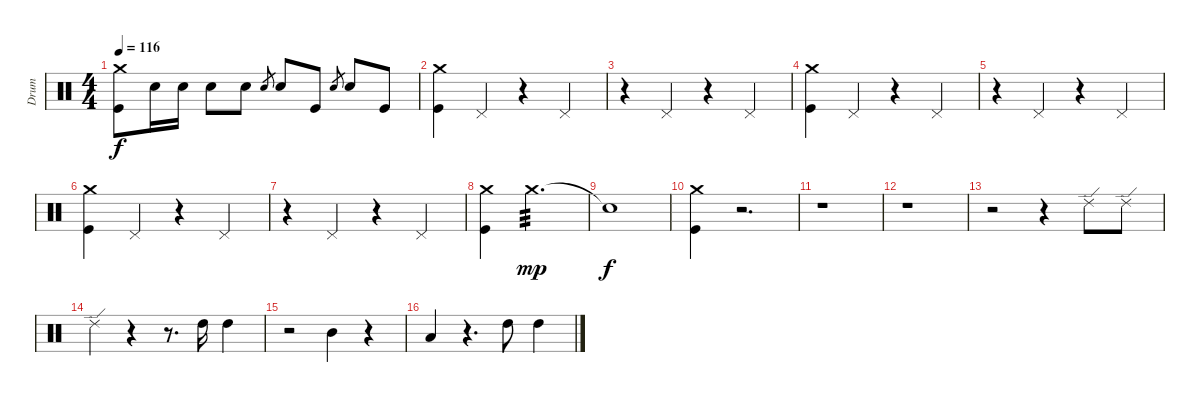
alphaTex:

\track ("Drum" "Drum") {instrument percussion}
\staff {score}
\articulation defaults
\ts (4 4)
\tempo 116
\clef neutral
\ks c
("Kick (hit)" "Crash medium (hit)").8{dy f} "Electric Snare (hit)".16 "Electric Snare (hit)".16 "Electric Snare (hit)".8 "Electric Snare (hit)".8 "Electric Snare (hit)".8{gr} "Electric Snare (hit)".8 "Kick (hit)".8 "Electric Snare (hit)".8{gr} "Electric Snare (hit)".8 "Kick (hit)".8 |
("Kick (hit)" "Crash medium (hit)").4 "Pedal Hi-Hat (hit)".4 r.4 "Pedal Hi-Hat (hit)".4 |
r.4 "Pedal Hi-Hat (hit)".4 r.4 "Pedal Hi-Hat (hit)".4 |
("Kick (hit)" "Crash medium (hit)").4 "Pedal Hi-Hat (hit)".4 r.4 "Pedal Hi-Hat (hit)".4 |
r.4 "Pedal Hi-Hat (hit)".4 r.4 "Pedal Hi-Hat (hit)".4 |
("Kick (hit)" "Crash medium (hit)").4 "Pedal Hi-Hat (hit)".4 r.4 "Pedal Hi-Hat (hit)".4 |
r.4 "Pedal Hi-Hat (hit)".4 r.4 "Pedal Hi-Hat (hit)".4 |
("Kick (hit)" "Crash medium (hit)").4 "Crash medium (hit)".2{d tp 3 dy mp} |
"Snare (hit)"{t}.1{dy f} |
("Kick (hit)" "Crash medium (hit)").4 r.2{d} |
r.1 |
r.1 |
r.2 r.4 "Ride (edge) 2".8 "Ride (edge) 2".8 |
"Ride (edge) 2".4 r.4 r.8{d} "High Tom (hit)".16 "High Tom (hit)".4 |
r.2 "Mid Tom (hit)".4 r.4 |
"Low Tom (hit)".4 r.4{d} "High Tom (hit)".8 "High Tom (hit)".4
